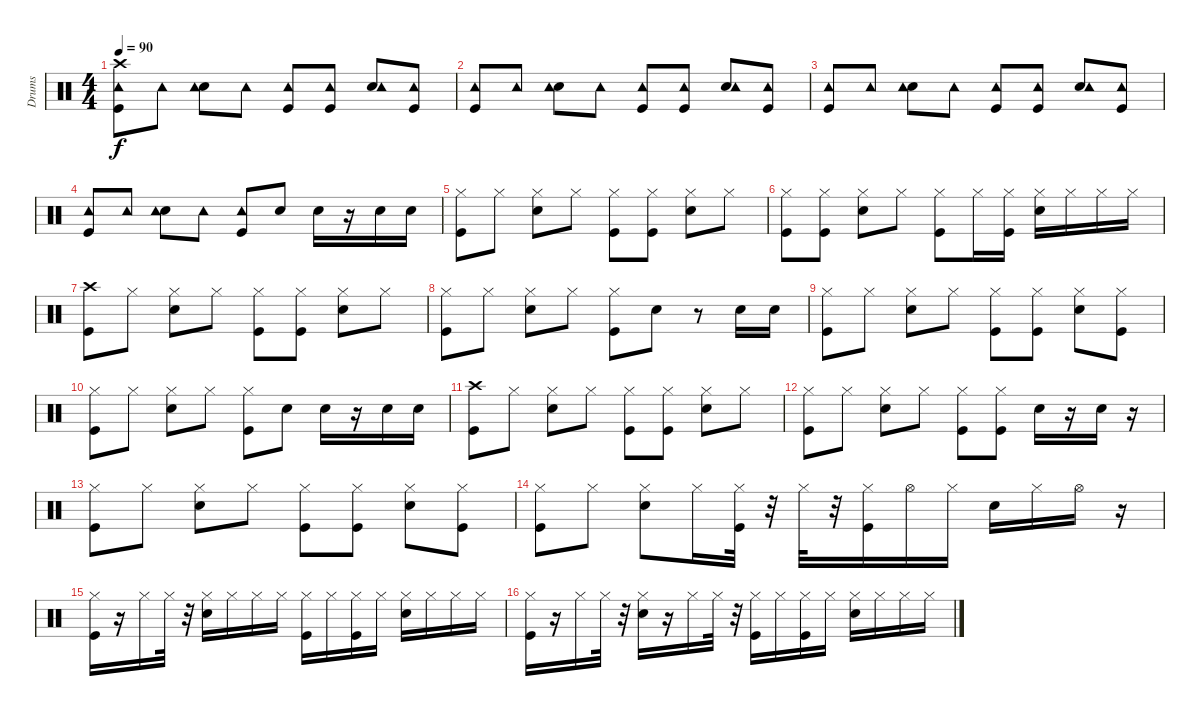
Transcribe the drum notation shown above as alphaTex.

\track ("Drums" "Drums") {instrument percussion}
\staff {score}
\articulation defaults
\ts (4 4)
\tempo 90
\clef neutral
\ks c
("Tambourine (hit)" "Kick (hit)" "Crash high (hit)").8{dy f} "Tambourine (hit)".8 ("Snare (hit) 2" "Tambourine (hit)").8 "Tambourine (hit)".8 ("Kick (hit)" "Tambourine (hit)").8 ("Kick (hit)" "Tambourine (hit)").8 ("Snare (hit) 2" "Tambourine (hit)").8 ("Kick (hit)" "Tambourine (hit)").8 |
("Tambourine (hit)" "Kick (hit)").8 "Tambourine (hit)".8 ("Snare (hit) 2" "Tambourine (hit)").8 "Tambourine (hit)".8 ("Kick (hit)" "Tambourine (hit)").8 ("Kick (hit)" "Tambourine (hit)").8 ("Snare (hit) 2" "Tambourine (hit)").8 ("Kick (hit)" "Tambourine (hit)").8 |
("Tambourine (hit)" "Kick (hit)").8 "Tambourine (hit)".8 ("Snare (hit) 2" "Tambourine (hit)").8 "Tambourine (hit)".8 ("Kick (hit)" "Tambourine (hit)").8 ("Kick (hit)" "Tambourine (hit)").8 ("Snare (hit) 2" "Tambourine (hit)").8 ("Kick (hit)" "Tambourine (hit)").8 |
("Tambourine (hit)" "Kick (hit)").8 "Tambourine (hit)".8 ("Snare (hit) 2" "Tambourine (hit)").8 "Tambourine (hit)".8 ("Kick (hit)" "Tambourine (hit)").8 "Snare (hit) 2".8 "Snare (hit) 2".16 r.16 "Snare (hit) 2".16 "Snare (hit) 2".16 |
("Kick (hit)" "Hi-Hat (closed)").8 "Hi-Hat (closed)".8 ("Snare (hit) 2" "Hi-Hat (closed)").8 "Hi-Hat (closed)".8 ("Kick (hit)" "Hi-Hat (closed)").8 ("Kick (hit)" "Hi-Hat (closed)").8 ("Snare (hit) 2" "Hi-Hat (closed)").8 "Hi-Hat (closed)".8 |
("Hi-Hat (closed)" "Kick (hit)").8 ("Kick (hit)" "Hi-Hat (closed)").8 ("Snare (hit) 2" "Hi-Hat (closed)").8 "Hi-Hat (closed)".8 ("Kick (hit)" "Hi-Hat (closed)").8 "Hi-Hat (closed)".16 ("Hi-Hat (closed)" "Kick (hit)").16 ("Hi-Hat (closed)" "Snare (hit) 2").16 "Hi-Hat (closed)".16 "Hi-Hat (closed)".16 "Hi-Hat (closed)".16 |
("Kick (hit)" "Crash high (hit)").8 "Hi-Hat (closed)".8 ("Snare (hit) 2" "Hi-Hat (closed)").8 "Hi-Hat (closed)".8 ("Kick (hit)" "Hi-Hat (closed)").8 ("Kick (hit)" "Hi-Hat (closed)").8 ("Snare (hit) 2" "Hi-Hat (closed)").8 "Hi-Hat (closed)".8 |
("Kick (hit)" "Hi-Hat (closed)").8 "Hi-Hat (closed)".8 ("Snare (hit) 2" "Hi-Hat (closed)").8 "Hi-Hat (closed)".8 ("Kick (hit)" "Hi-Hat (closed)").8 "Snare (hit) 2".8 r.8 "Snare (hit) 2".16 "Snare (hit) 2".16 |
("Kick (hit)" "Hi-Hat (closed)").8 "Hi-Hat (closed)".8 ("Snare (hit) 2" "Hi-Hat (closed)").8 "Hi-Hat (closed)".8 ("Kick (hit)" "Hi-Hat (closed)").8 ("Kick (hit)" "Hi-Hat (closed)").8 ("Snare (hit) 2" "Hi-Hat (closed)").8 ("Kick (hit)" "Hi-Hat (closed)").8 |
("Hi-Hat (closed)" "Kick (hit)").8 "Hi-Hat (closed)".8 ("Snare (hit) 2" "Hi-Hat (closed)").8 "Hi-Hat (closed)".8 ("Kick (hit)" "Hi-Hat (closed)").8 "Snare (hit) 2".8 "Snare (hit) 2".16 r.16 "Snare (hit) 2".16 "Snare (hit) 2".16 |
("Kick (hit)" "Crash high (hit)").8 "Hi-Hat (closed)".8 ("Snare (hit) 2" "Hi-Hat (closed)").8 "Hi-Hat (closed)".8 ("Kick (hit)" "Hi-Hat (closed)").8 ("Kick (hit)" "Hi-Hat (closed)").8 ("Snare (hit) 2" "Hi-Hat (closed)").8 "Hi-Hat (closed)".8 |
("Kick (hit)" "Hi-Hat (closed)").8 "Hi-Hat (closed)".8 ("Snare (hit) 2" "Hi-Hat (closed)").8 "Hi-Hat (closed)".8 ("Kick (hit)" "Hi-Hat (closed)").8 ("Kick (hit)" "Hi-Hat (closed)").8 "Snare (hit) 2".16 r.16 "Snare (hit) 2".16 r.16 |
("Kick (hit)" "Hi-Hat (closed)").8 "Hi-Hat (closed)".8 ("Snare (hit) 2" "Hi-Hat (closed)").8 "Hi-Hat (closed)".8 ("Kick (hit)" "Hi-Hat (closed)").8 ("Kick (hit)" "Hi-Hat (closed)").8 ("Snare (hit) 2" "Hi-Hat (closed)").8 ("Kick (hit)" "Hi-Hat (closed)").8 |
("Kick (hit)" "Hi-Hat (closed)").8 "Hi-Hat (closed)".8 ("Snare (hit) 2" "Hi-Hat (closed)").8 "Hi-Hat (closed)".16 ("Hi-Hat (closed)" "Kick (hit)").32 r.32 "Hi-Hat (closed)".32 r.32 ("Hi-Hat (closed)" "Kick (hit)").16 "Hi-Hat (open)".16 "Hi-Hat (closed)".16 "Snare (hit) 2".16 "Hi-Hat (closed)".16 "Hi-Hat (open)".16 r.16 |
("Hi-Hat (closed)" "Kick (hit)").16 r.16 "Hi-Hat (closed)".16 "Hi-Hat (closed)".32 r.32 ("Hi-Hat (closed)" "Snare (hit) 2").16 "Hi-Hat (closed)".16 "Hi-Hat (closed)".16 "Hi-Hat (closed)".16 ("Hi-Hat (closed)" "Kick (hit)").16 "Hi-Hat (closed)".16 ("Hi-Hat (closed)" "Kick (hit)").16 "Hi-Hat (closed)".16 ("Hi-Hat (closed)" "Snare (hit) 2").16 "Hi-Hat (closed)".16 "Hi-Hat (closed)".16 "Hi-Hat (closed)".16 |
("Hi-Hat (closed)" "Kick (hit)").16 r.16 "Hi-Hat (closed)".16 "Hi-Hat (closed)".32 r.32 ("Hi-Hat (closed)" "Snare (hit) 2").16 r.16 "Hi-Hat (closed)".16 "Hi-Hat (closed)".32 r.32 ("Hi-Hat (closed)" "Kick (hit)").16 "Hi-Hat (closed)".16 ("Hi-Hat (closed)" "Kick (hit)").16 "Hi-Hat (closed)".16 ("Hi-Hat (closed)" "Snare (hit) 2").16 "Hi-Hat (closed)".16 "Hi-Hat (closed)".16 "Hi-Hat (closed)".16
